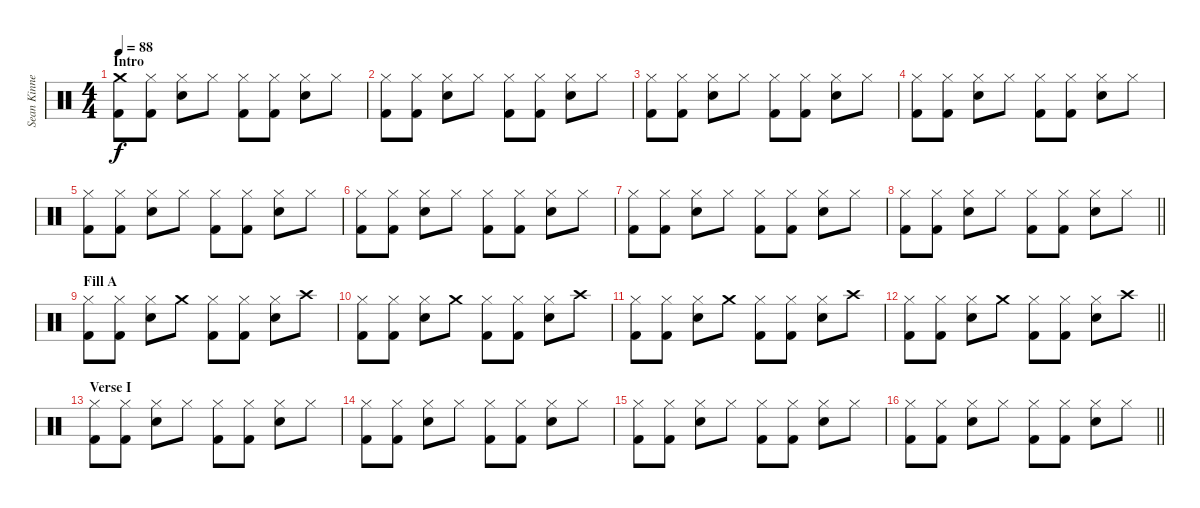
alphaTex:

\track ("Sean Kinney" "Sean Kinne") {instrument percussion}
\staff {score}
\articulation defaults
\ts (4 4)
\section ("" "Intro")
\tempo 88
\clef neutral
\ks c
("Crash medium (hit)" "Kick (hit) 2").8{dy f} ("Hi-Hat (closed)" "Kick (hit) 2").8 ("Hi-Hat (closed)" "Electric Snare (hit)").8 "Hi-Hat (closed)".8 ("Hi-Hat (closed)" "Kick (hit) 2").8 ("Hi-Hat (closed)" "Kick (hit) 2").8 ("Hi-Hat (closed)" "Electric Snare (hit)").8 "Hi-Hat (closed)".8 |
("Hi-Hat (closed)" "Kick (hit) 2").8 ("Hi-Hat (closed)" "Kick (hit) 2").8 ("Hi-Hat (closed)" "Electric Snare (hit)").8 "Hi-Hat (closed)".8 ("Hi-Hat (closed)" "Kick (hit) 2").8 ("Hi-Hat (closed)" "Kick (hit) 2").8 ("Hi-Hat (closed)" "Electric Snare (hit)").8 "Hi-Hat (closed)".8 |
("Hi-Hat (closed)" "Kick (hit) 2").8 ("Hi-Hat (closed)" "Kick (hit) 2").8 ("Hi-Hat (closed)" "Electric Snare (hit)").8 "Hi-Hat (closed)".8 ("Hi-Hat (closed)" "Kick (hit) 2").8 ("Hi-Hat (closed)" "Kick (hit) 2").8 ("Hi-Hat (closed)" "Electric Snare (hit)").8 "Hi-Hat (closed)".8 |
("Hi-Hat (closed)" "Kick (hit) 2").8 ("Hi-Hat (closed)" "Kick (hit) 2").8 ("Hi-Hat (closed)" "Electric Snare (hit)").8 "Hi-Hat (closed)".8 ("Hi-Hat (closed)" "Kick (hit) 2").8 ("Hi-Hat (closed)" "Kick (hit) 2").8 ("Hi-Hat (closed)" "Electric Snare (hit)").8 "Hi-Hat (closed)".8 |
("Hi-Hat (closed)" "Kick (hit) 2").8 ("Hi-Hat (closed)" "Kick (hit) 2").8 ("Hi-Hat (closed)" "Electric Snare (hit)").8 "Hi-Hat (closed)".8 ("Hi-Hat (closed)" "Kick (hit) 2").8 ("Hi-Hat (closed)" "Kick (hit) 2").8 ("Hi-Hat (closed)" "Electric Snare (hit)").8 "Hi-Hat (closed)".8 |
("Hi-Hat (closed)" "Kick (hit) 2").8 ("Hi-Hat (closed)" "Kick (hit) 2").8 ("Hi-Hat (closed)" "Electric Snare (hit)").8 "Hi-Hat (closed)".8 ("Hi-Hat (closed)" "Kick (hit) 2").8 ("Hi-Hat (closed)" "Kick (hit) 2").8 ("Hi-Hat (closed)" "Electric Snare (hit)").8 "Hi-Hat (closed)".8 |
("Hi-Hat (closed)" "Kick (hit) 2").8 ("Hi-Hat (closed)" "Kick (hit) 2").8 ("Hi-Hat (closed)" "Electric Snare (hit)").8 "Hi-Hat (closed)".8 ("Hi-Hat (closed)" "Kick (hit) 2").8 ("Hi-Hat (closed)" "Kick (hit) 2").8 ("Hi-Hat (closed)" "Electric Snare (hit)").8 "Hi-Hat (closed)".8 |
\barLineRight lightlight
("Hi-Hat (closed)" "Kick (hit) 2").8 ("Hi-Hat (closed)" "Kick (hit) 2").8 ("Hi-Hat (closed)" "Electric Snare (hit)").8 "Hi-Hat (closed)".8 ("Hi-Hat (closed)" "Kick (hit) 2").8 ("Hi-Hat (closed)" "Kick (hit) 2").8 ("Hi-Hat (closed)" "Electric Snare (hit)").8 "Hi-Hat (closed)".8 |
\section ("" "Fill A")
("Hi-Hat (closed)" "Kick (hit) 2").8 ("Hi-Hat (closed)" "Kick (hit) 2").8 ("Hi-Hat (closed)" "Electric Snare (hit)").8 "Crash medium (hit)".8 ("Hi-Hat (closed)" "Kick (hit) 2").8 ("Hi-Hat (closed)" "Kick (hit) 2").8 ("Hi-Hat (closed)" "Electric Snare (hit)").8 "Crash high (hit)".8 |
("Hi-Hat (closed)" "Kick (hit) 2").8 ("Hi-Hat (closed)" "Kick (hit) 2").8 ("Hi-Hat (closed)" "Electric Snare (hit)").8 "Crash medium (hit)".8 ("Hi-Hat (closed)" "Kick (hit) 2").8 ("Hi-Hat (closed)" "Kick (hit) 2").8 ("Hi-Hat (closed)" "Electric Snare (hit)").8 "Crash high (hit)".8 |
("Hi-Hat (closed)" "Kick (hit) 2").8 ("Hi-Hat (closed)" "Kick (hit) 2").8 ("Hi-Hat (closed)" "Electric Snare (hit)").8 "Crash medium (hit)".8 ("Hi-Hat (closed)" "Kick (hit) 2").8 ("Hi-Hat (closed)" "Kick (hit) 2").8 ("Hi-Hat (closed)" "Electric Snare (hit)").8 "Crash high (hit)".8 |
\barLineRight lightlight
("Hi-Hat (closed)" "Kick (hit) 2").8 ("Hi-Hat (closed)" "Kick (hit) 2").8 ("Hi-Hat (closed)" "Electric Snare (hit)").8 "Crash medium (hit)".8 ("Hi-Hat (closed)" "Kick (hit) 2").8 ("Hi-Hat (closed)" "Kick (hit) 2").8 ("Hi-Hat (closed)" "Electric Snare (hit)").8 "Crash high (hit)".8 |
\section ("" "Verse I")
("Hi-Hat (closed)" "Kick (hit) 2").8 ("Hi-Hat (closed)" "Kick (hit) 2").8 ("Hi-Hat (closed)" "Electric Snare (hit)").8 "Hi-Hat (closed)".8 ("Hi-Hat (closed)" "Kick (hit) 2").8 ("Hi-Hat (closed)" "Kick (hit) 2").8 ("Hi-Hat (closed)" "Electric Snare (hit)").8 "Hi-Hat (closed)".8 |
("Hi-Hat (closed)" "Kick (hit) 2").8 ("Hi-Hat (closed)" "Kick (hit) 2").8 ("Hi-Hat (closed)" "Electric Snare (hit)").8 "Hi-Hat (closed)".8 ("Hi-Hat (closed)" "Kick (hit) 2").8 ("Hi-Hat (closed)" "Kick (hit) 2").8 ("Hi-Hat (closed)" "Electric Snare (hit)").8 "Hi-Hat (closed)".8 |
("Hi-Hat (closed)" "Kick (hit) 2").8 ("Hi-Hat (closed)" "Kick (hit) 2").8 ("Hi-Hat (closed)" "Electric Snare (hit)").8 "Hi-Hat (closed)".8 ("Hi-Hat (closed)" "Kick (hit) 2").8 ("Hi-Hat (closed)" "Kick (hit) 2").8 ("Hi-Hat (closed)" "Electric Snare (hit)").8 "Hi-Hat (closed)".8 |
\barLineRight lightlight
("Hi-Hat (closed)" "Kick (hit) 2").8 ("Hi-Hat (closed)" "Kick (hit) 2").8 ("Hi-Hat (closed)" "Electric Snare (hit)").8 "Hi-Hat (closed)".8 ("Hi-Hat (closed)" "Kick (hit) 2").8 ("Hi-Hat (closed)" "Kick (hit) 2").8 ("Hi-Hat (closed)" "Electric Snare (hit)").8 "Hi-Hat (closed)".8
